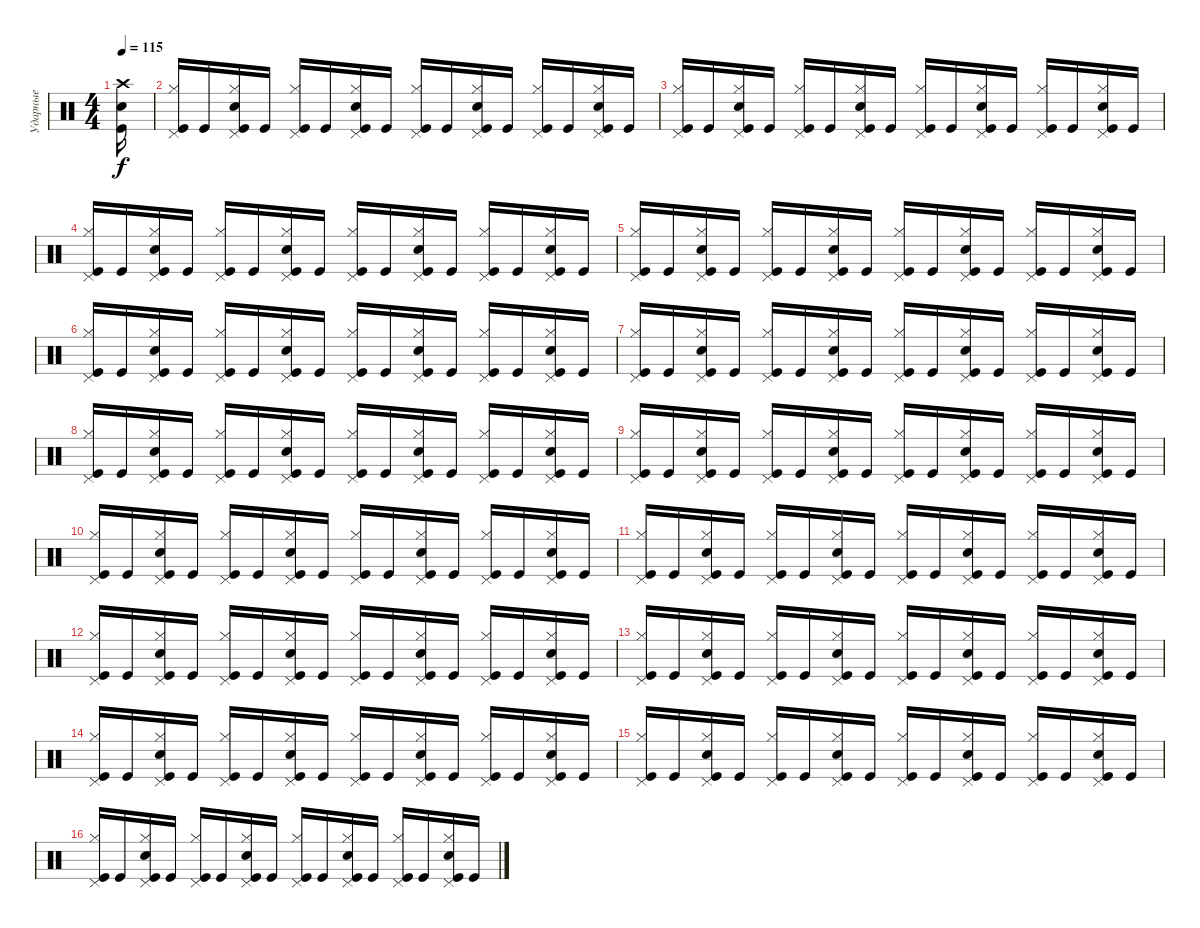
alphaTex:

\track ("Ударные" "Ударные") {instrument percussion}
\staff {score}
\articulation defaults
\ts (4 4)
\tempo 115
\clef neutral
\ks c
("Kick (hit)" "Electric Snare (hit)" "Crash high (hit)").16{dy f} |
("Kick (hit)" "Hi-Hat (closed)" "Pedal Hi-Hat (hit)").16 "Kick (hit)".16 ("Kick (hit)" "Electric Snare (hit)" "Hi-Hat (closed)" "Pedal Hi-Hat (hit)").16 "Kick (hit)".16 ("Kick (hit)" "Pedal Hi-Hat (hit)" "Hi-Hat (closed)").16 "Kick (hit)".16 ("Kick (hit)" "Electric Snare (hit)" "Hi-Hat (closed)" "Pedal Hi-Hat (hit)").16 "Kick (hit)".16 ("Kick (hit)" "Pedal Hi-Hat (hit)" "Hi-Hat (closed)").16 "Kick (hit)".16 ("Kick (hit)" "Electric Snare (hit)" "Hi-Hat (closed)" "Pedal Hi-Hat (hit)").16 "Kick (hit)".16 ("Kick (hit)" "Pedal Hi-Hat (hit)" "Hi-Hat (closed)").16 "Kick (hit)".16 ("Kick (hit)" "Electric Snare (hit)" "Hi-Hat (closed)" "Pedal Hi-Hat (hit)").16 "Kick (hit)".16 |
("Kick (hit)" "Hi-Hat (closed)" "Pedal Hi-Hat (hit)").16 "Kick (hit)".16 ("Kick (hit)" "Electric Snare (hit)" "Hi-Hat (closed)" "Pedal Hi-Hat (hit)").16 "Kick (hit)".16 ("Kick (hit)" "Pedal Hi-Hat (hit)" "Hi-Hat (closed)").16 "Kick (hit)".16 ("Kick (hit)" "Electric Snare (hit)" "Hi-Hat (closed)" "Pedal Hi-Hat (hit)").16 "Kick (hit)".16 ("Kick (hit)" "Pedal Hi-Hat (hit)" "Hi-Hat (closed)").16 "Kick (hit)".16 ("Kick (hit)" "Electric Snare (hit)" "Hi-Hat (closed)" "Pedal Hi-Hat (hit)").16 "Kick (hit)".16 ("Kick (hit)" "Pedal Hi-Hat (hit)" "Hi-Hat (closed)").16 "Kick (hit)".16 ("Kick (hit)" "Electric Snare (hit)" "Hi-Hat (closed)" "Pedal Hi-Hat (hit)").16 "Kick (hit)".16 |
("Kick (hit)" "Hi-Hat (closed)" "Pedal Hi-Hat (hit)").16 "Kick (hit)".16 ("Kick (hit)" "Electric Snare (hit)" "Hi-Hat (closed)" "Pedal Hi-Hat (hit)").16 "Kick (hit)".16 ("Kick (hit)" "Pedal Hi-Hat (hit)" "Hi-Hat (closed)").16 "Kick (hit)".16 ("Kick (hit)" "Electric Snare (hit)" "Hi-Hat (closed)" "Pedal Hi-Hat (hit)").16 "Kick (hit)".16 ("Kick (hit)" "Pedal Hi-Hat (hit)" "Hi-Hat (closed)").16 "Kick (hit)".16 ("Kick (hit)" "Electric Snare (hit)" "Hi-Hat (closed)" "Pedal Hi-Hat (hit)").16 "Kick (hit)".16 ("Kick (hit)" "Pedal Hi-Hat (hit)" "Hi-Hat (closed)").16 "Kick (hit)".16 ("Kick (hit)" "Electric Snare (hit)" "Hi-Hat (closed)" "Pedal Hi-Hat (hit)").16 "Kick (hit)".16 |
("Kick (hit)" "Hi-Hat (closed)" "Pedal Hi-Hat (hit)").16 "Kick (hit)".16 ("Kick (hit)" "Electric Snare (hit)" "Hi-Hat (closed)" "Pedal Hi-Hat (hit)").16 "Kick (hit)".16 ("Kick (hit)" "Pedal Hi-Hat (hit)" "Hi-Hat (closed)").16 "Kick (hit)".16 ("Kick (hit)" "Electric Snare (hit)" "Hi-Hat (closed)" "Pedal Hi-Hat (hit)").16 "Kick (hit)".16 ("Kick (hit)" "Pedal Hi-Hat (hit)" "Hi-Hat (closed)").16 "Kick (hit)".16 ("Kick (hit)" "Electric Snare (hit)" "Hi-Hat (closed)" "Pedal Hi-Hat (hit)").16 "Kick (hit)".16 ("Kick (hit)" "Pedal Hi-Hat (hit)" "Hi-Hat (closed)").16 "Kick (hit)".16 ("Kick (hit)" "Electric Snare (hit)" "Hi-Hat (closed)" "Pedal Hi-Hat (hit)").16 "Kick (hit)".16 |
("Kick (hit)" "Hi-Hat (closed)" "Pedal Hi-Hat (hit)").16 "Kick (hit)".16 ("Kick (hit)" "Electric Snare (hit)" "Hi-Hat (closed)" "Pedal Hi-Hat (hit)").16 "Kick (hit)".16 ("Kick (hit)" "Pedal Hi-Hat (hit)" "Hi-Hat (closed)").16 "Kick (hit)".16 ("Kick (hit)" "Electric Snare (hit)" "Hi-Hat (closed)" "Pedal Hi-Hat (hit)").16 "Kick (hit)".16 ("Kick (hit)" "Pedal Hi-Hat (hit)" "Hi-Hat (closed)").16 "Kick (hit)".16 ("Kick (hit)" "Electric Snare (hit)" "Hi-Hat (closed)" "Pedal Hi-Hat (hit)").16 "Kick (hit)".16 ("Kick (hit)" "Pedal Hi-Hat (hit)" "Hi-Hat (closed)").16 "Kick (hit)".16 ("Kick (hit)" "Electric Snare (hit)" "Hi-Hat (closed)" "Pedal Hi-Hat (hit)").16 "Kick (hit)".16 |
("Kick (hit)" "Hi-Hat (closed)" "Pedal Hi-Hat (hit)").16 "Kick (hit)".16 ("Kick (hit)" "Electric Snare (hit)" "Hi-Hat (closed)" "Pedal Hi-Hat (hit)").16 "Kick (hit)".16 ("Kick (hit)" "Pedal Hi-Hat (hit)" "Hi-Hat (closed)").16 "Kick (hit)".16 ("Kick (hit)" "Electric Snare (hit)" "Hi-Hat (closed)" "Pedal Hi-Hat (hit)").16 "Kick (hit)".16 ("Kick (hit)" "Pedal Hi-Hat (hit)" "Hi-Hat (closed)").16 "Kick (hit)".16 ("Kick (hit)" "Electric Snare (hit)" "Hi-Hat (closed)" "Pedal Hi-Hat (hit)").16 "Kick (hit)".16 ("Kick (hit)" "Pedal Hi-Hat (hit)" "Hi-Hat (closed)").16 "Kick (hit)".16 ("Kick (hit)" "Electric Snare (hit)" "Hi-Hat (closed)" "Pedal Hi-Hat (hit)").16 "Kick (hit)".16 |
("Kick (hit)" "Hi-Hat (closed)" "Pedal Hi-Hat (hit)").16 "Kick (hit)".16 ("Kick (hit)" "Electric Snare (hit)" "Hi-Hat (closed)" "Pedal Hi-Hat (hit)").16 "Kick (hit)".16 ("Kick (hit)" "Pedal Hi-Hat (hit)" "Hi-Hat (closed)").16 "Kick (hit)".16 ("Kick (hit)" "Electric Snare (hit)" "Hi-Hat (closed)" "Pedal Hi-Hat (hit)").16 "Kick (hit)".16 ("Kick (hit)" "Pedal Hi-Hat (hit)" "Hi-Hat (closed)").16 "Kick (hit)".16 ("Kick (hit)" "Electric Snare (hit)" "Hi-Hat (closed)" "Pedal Hi-Hat (hit)").16 "Kick (hit)".16 ("Kick (hit)" "Pedal Hi-Hat (hit)" "Hi-Hat (closed)").16 "Kick (hit)".16 ("Kick (hit)" "Electric Snare (hit)" "Hi-Hat (closed)" "Pedal Hi-Hat (hit)").16 "Kick (hit)".16 |
("Kick (hit)" "Hi-Hat (closed)" "Pedal Hi-Hat (hit)").16 "Kick (hit)".16 ("Kick (hit)" "Electric Snare (hit)" "Hi-Hat (closed)" "Pedal Hi-Hat (hit)").16 "Kick (hit)".16 ("Kick (hit)" "Pedal Hi-Hat (hit)" "Hi-Hat (closed)").16 "Kick (hit)".16 ("Kick (hit)" "Electric Snare (hit)" "Hi-Hat (closed)" "Pedal Hi-Hat (hit)").16 "Kick (hit)".16 ("Kick (hit)" "Pedal Hi-Hat (hit)" "Hi-Hat (closed)").16 "Kick (hit)".16 ("Kick (hit)" "Electric Snare (hit)" "Hi-Hat (closed)" "Pedal Hi-Hat (hit)").16 "Kick (hit)".16 ("Kick (hit)" "Pedal Hi-Hat (hit)" "Hi-Hat (closed)").16 "Kick (hit)".16 ("Kick (hit)" "Electric Snare (hit)" "Hi-Hat (closed)" "Pedal Hi-Hat (hit)").16 "Kick (hit)".16 |
("Kick (hit)" "Hi-Hat (closed)" "Pedal Hi-Hat (hit)").16 "Kick (hit)".16 ("Kick (hit)" "Electric Snare (hit)" "Hi-Hat (closed)" "Pedal Hi-Hat (hit)").16 "Kick (hit)".16 ("Kick (hit)" "Pedal Hi-Hat (hit)" "Hi-Hat (closed)").16 "Kick (hit)".16 ("Kick (hit)" "Electric Snare (hit)" "Hi-Hat (closed)" "Pedal Hi-Hat (hit)").16 "Kick (hit)".16 ("Kick (hit)" "Pedal Hi-Hat (hit)" "Hi-Hat (closed)").16 "Kick (hit)".16 ("Kick (hit)" "Electric Snare (hit)" "Hi-Hat (closed)" "Pedal Hi-Hat (hit)").16 "Kick (hit)".16 ("Kick (hit)" "Pedal Hi-Hat (hit)" "Hi-Hat (closed)").16 "Kick (hit)".16 ("Kick (hit)" "Electric Snare (hit)" "Hi-Hat (closed)" "Pedal Hi-Hat (hit)").16 "Kick (hit)".16 |
("Kick (hit)" "Hi-Hat (closed)" "Pedal Hi-Hat (hit)").16 "Kick (hit)".16 ("Kick (hit)" "Electric Snare (hit)" "Hi-Hat (closed)" "Pedal Hi-Hat (hit)").16 "Kick (hit)".16 ("Kick (hit)" "Pedal Hi-Hat (hit)" "Hi-Hat (closed)").16 "Kick (hit)".16 ("Kick (hit)" "Electric Snare (hit)" "Hi-Hat (closed)" "Pedal Hi-Hat (hit)").16 "Kick (hit)".16 ("Kick (hit)" "Pedal Hi-Hat (hit)" "Hi-Hat (closed)").16 "Kick (hit)".16 ("Kick (hit)" "Electric Snare (hit)" "Hi-Hat (closed)" "Pedal Hi-Hat (hit)").16 "Kick (hit)".16 ("Kick (hit)" "Pedal Hi-Hat (hit)" "Hi-Hat (closed)").16 "Kick (hit)".16 ("Kick (hit)" "Electric Snare (hit)" "Hi-Hat (closed)" "Pedal Hi-Hat (hit)").16 "Kick (hit)".16 |
("Kick (hit)" "Hi-Hat (closed)" "Pedal Hi-Hat (hit)").16 "Kick (hit)".16 ("Kick (hit)" "Electric Snare (hit)" "Hi-Hat (closed)" "Pedal Hi-Hat (hit)").16 "Kick (hit)".16 ("Kick (hit)" "Pedal Hi-Hat (hit)" "Hi-Hat (closed)").16 "Kick (hit)".16 ("Kick (hit)" "Electric Snare (hit)" "Hi-Hat (closed)" "Pedal Hi-Hat (hit)").16 "Kick (hit)".16 ("Kick (hit)" "Pedal Hi-Hat (hit)" "Hi-Hat (closed)").16 "Kick (hit)".16 ("Kick (hit)" "Electric Snare (hit)" "Hi-Hat (closed)" "Pedal Hi-Hat (hit)").16 "Kick (hit)".16 ("Kick (hit)" "Pedal Hi-Hat (hit)" "Hi-Hat (closed)").16 "Kick (hit)".16 ("Kick (hit)" "Electric Snare (hit)" "Hi-Hat (closed)" "Pedal Hi-Hat (hit)").16 "Kick (hit)".16 |
("Kick (hit)" "Hi-Hat (closed)" "Pedal Hi-Hat (hit)").16 "Kick (hit)".16 ("Kick (hit)" "Electric Snare (hit)" "Hi-Hat (closed)" "Pedal Hi-Hat (hit)").16 "Kick (hit)".16 ("Kick (hit)" "Pedal Hi-Hat (hit)" "Hi-Hat (closed)").16 "Kick (hit)".16 ("Kick (hit)" "Electric Snare (hit)" "Hi-Hat (closed)" "Pedal Hi-Hat (hit)").16 "Kick (hit)".16 ("Kick (hit)" "Pedal Hi-Hat (hit)" "Hi-Hat (closed)").16 "Kick (hit)".16 ("Kick (hit)" "Electric Snare (hit)" "Hi-Hat (closed)" "Pedal Hi-Hat (hit)").16 "Kick (hit)".16 ("Kick (hit)" "Pedal Hi-Hat (hit)" "Hi-Hat (closed)").16 "Kick (hit)".16 ("Kick (hit)" "Electric Snare (hit)" "Hi-Hat (closed)" "Pedal Hi-Hat (hit)").16 "Kick (hit)".16 |
("Kick (hit)" "Hi-Hat (closed)" "Pedal Hi-Hat (hit)").16 "Kick (hit)".16 ("Kick (hit)" "Electric Snare (hit)" "Hi-Hat (closed)" "Pedal Hi-Hat (hit)").16 "Kick (hit)".16 ("Kick (hit)" "Pedal Hi-Hat (hit)" "Hi-Hat (closed)").16 "Kick (hit)".16 ("Kick (hit)" "Electric Snare (hit)" "Hi-Hat (closed)" "Pedal Hi-Hat (hit)").16 "Kick (hit)".16 ("Kick (hit)" "Pedal Hi-Hat (hit)" "Hi-Hat (closed)").16 "Kick (hit)".16 ("Kick (hit)" "Electric Snare (hit)" "Hi-Hat (closed)" "Pedal Hi-Hat (hit)").16 "Kick (hit)".16 ("Kick (hit)" "Pedal Hi-Hat (hit)" "Hi-Hat (closed)").16 "Kick (hit)".16 ("Kick (hit)" "Electric Snare (hit)" "Hi-Hat (closed)" "Pedal Hi-Hat (hit)").16 "Kick (hit)".16 |
("Kick (hit)" "Hi-Hat (closed)" "Pedal Hi-Hat (hit)").16 "Kick (hit)".16 ("Kick (hit)" "Electric Snare (hit)" "Hi-Hat (closed)" "Pedal Hi-Hat (hit)").16 "Kick (hit)".16 ("Kick (hit)" "Pedal Hi-Hat (hit)" "Hi-Hat (closed)").16 "Kick (hit)".16 ("Kick (hit)" "Electric Snare (hit)" "Hi-Hat (closed)" "Pedal Hi-Hat (hit)").16 "Kick (hit)".16 ("Kick (hit)" "Pedal Hi-Hat (hit)" "Hi-Hat (closed)").16 "Kick (hit)".16 ("Kick (hit)" "Electric Snare (hit)" "Hi-Hat (closed)" "Pedal Hi-Hat (hit)").16 "Kick (hit)".16 ("Kick (hit)" "Pedal Hi-Hat (hit)" "Hi-Hat (closed)").16 "Kick (hit)".16 ("Kick (hit)" "Electric Snare (hit)" "Hi-Hat (closed)" "Pedal Hi-Hat (hit)").16 "Kick (hit)".16 |
("Kick (hit)" "Hi-Hat (closed)" "Pedal Hi-Hat (hit)").16 "Kick (hit)".16 ("Kick (hit)" "Electric Snare (hit)" "Hi-Hat (closed)" "Pedal Hi-Hat (hit)").16 "Kick (hit)".16 ("Kick (hit)" "Pedal Hi-Hat (hit)" "Hi-Hat (closed)").16 "Kick (hit)".16 ("Kick (hit)" "Electric Snare (hit)" "Hi-Hat (closed)" "Pedal Hi-Hat (hit)").16 "Kick (hit)".16 ("Kick (hit)" "Pedal Hi-Hat (hit)" "Hi-Hat (closed)").16 "Kick (hit)".16 ("Kick (hit)" "Electric Snare (hit)" "Hi-Hat (closed)" "Pedal Hi-Hat (hit)").16 "Kick (hit)".16 ("Kick (hit)" "Pedal Hi-Hat (hit)" "Hi-Hat (closed)").16 "Kick (hit)".16 ("Kick (hit)" "Electric Snare (hit)" "Hi-Hat (closed)" "Pedal Hi-Hat (hit)").16 "Kick (hit)".16
